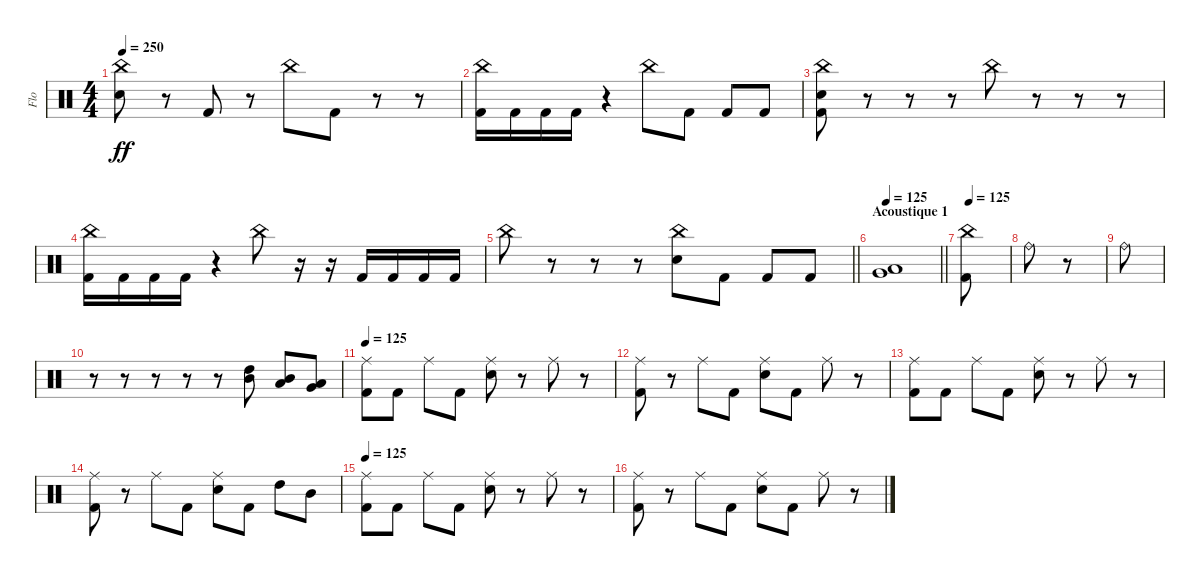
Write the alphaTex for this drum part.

\track ("Flo" "Flo") {instrument percussion}
\staff {score}
\articulation defaults
\ts (4 4)
\tempo 250
\clef neutral
\ks c
("China (hit)" "Electric Snare (hit)").8{dy ff} r.8 "Kick (hit) 2".8 r.8 "China (hit)".8 "Kick (hit) 2".8 r.8 r.8 |
("China (hit)" "Kick (hit) 2").16 "Kick (hit) 2".16 "Kick (hit) 2".16 "Kick (hit) 2".16 r.4 "China (hit)".8 "Kick (hit) 2".8 "Kick (hit) 2".8 "Kick (hit) 2".8 |
("China (hit)" "Electric Snare (hit)" "Kick (hit) 2").8 r.8 r.8 r.8 "China (hit)".8 r.8 r.8 r.8 |
("China (hit)" "Kick (hit) 2").16 "Kick (hit) 2".16 "Kick (hit) 2".16 "Kick (hit) 2".16 r.4 "China (hit)".8 r.16 r.16 "Kick (hit) 2".16 "Kick (hit) 2".16 "Kick (hit) 2".16 "Kick (hit) 2".16 |
\barLineRight lightlight "China (hit)".8
r.8 r.8 r.8 ("China (hit)" "Electric Snare (hit)").8 "Kick (hit) 2".8 "Kick (hit) 2".8 "Kick (hit) 2".8 |
\section ("" "Acoustique 1")
\tempo 125
\barLineRight lightlight
("Low Tom (hit)" "Very Low Tom (hit)").1 |
\tempo 125
("Kick (hit) 2" "China (hit)").8 |
"Ride (bell)".8 r.8 |
"Ride (bell)".8 |
r.8 r.8 r.8 r.8 r.8 ("High Tom (hit)" "Mid Tom (hit)").8 ("Mid Tom (hit)" "Low Tom (hit)").8 ("Very Low Tom (hit)" "Low Floor Tom (hit)").8 |
\tempo 125
("Ride (middle)" "Kick (hit) 2").8 "Kick (hit) 2".8 "Ride (middle)".8 "Kick (hit) 2".8 ("Ride (middle)" "Electric Snare (hit)").8 r.8 "Ride (middle)".8 r.8 |
("Ride (middle)" "Kick (hit) 2").8 r.8 "Ride (middle)".8 "Kick (hit) 2".8 ("Ride (middle)" "Electric Snare (hit)").8 "Kick (hit) 2".8 "Ride (middle)".8 r.8 |
("Ride (middle)" "Kick (hit) 2").8 "Kick (hit) 2".8 "Ride (middle)".8 "Kick (hit) 2".8 ("Ride (middle)" "Electric Snare (hit)").8 r.8 "Ride (middle)".8 r.8 |
("Ride (middle)" "Kick (hit) 2").8 r.8 "Ride (middle)".8 "Kick (hit) 2".8 ("Ride (middle)" "Electric Snare (hit)").8 "Kick (hit) 2".8 "High Tom (hit)".8 "Mid Tom (hit)".8 |
\tempo 125
("Ride (middle)" "Kick (hit) 2").8 "Kick (hit) 2".8 "Ride (middle)".8 "Kick (hit) 2".8 ("Ride (middle)" "Electric Snare (hit)").8 r.8 "Ride (middle)".8 r.8 |
("Ride (middle)" "Kick (hit) 2").8 r.8 "Ride (middle)".8 "Kick (hit) 2".8 ("Ride (middle)" "Electric Snare (hit)").8 "Kick (hit) 2".8 "Ride (middle)".8 r.8
